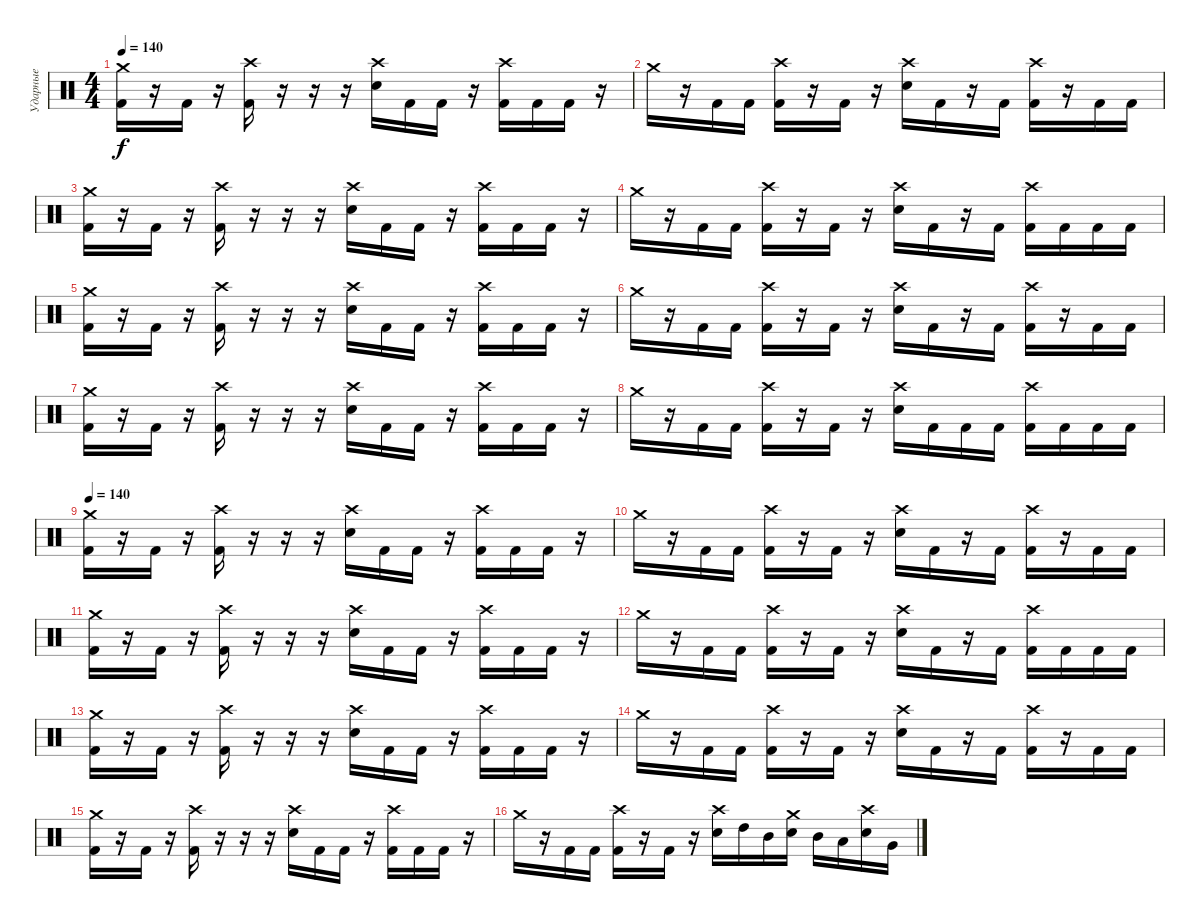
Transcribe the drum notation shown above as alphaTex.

\track ("Ударные" "Ударные") {instrument percussion}
\staff {score}
\articulation defaults
\ts (4 4)
\tempo 140
\clef neutral
\ks c
("Crash medium (hit)" "Kick (hit) 2").16{dy f} r.16 "Kick (hit) 2".16 r.16 ("Crash high (hit)" "Kick (hit) 2").16 r.16 r.16 r.16 ("Crash high (hit)" "Electric Snare (hit)").16 "Kick (hit) 2".16 "Kick (hit) 2".16 r.16 ("Crash high (hit)" "Kick (hit) 2").16 "Kick (hit) 2".16 "Kick (hit) 2".16 r.16 |
"Crash medium (hit)".16 r.16 "Kick (hit) 2".16 "Kick (hit) 2".16 ("Crash high (hit)" "Kick (hit) 2").16 r.16 "Kick (hit) 2".16 r.16 ("Crash high (hit)" "Electric Snare (hit)").16 "Kick (hit) 2".16 r.16 "Kick (hit) 2".16 ("Crash high (hit)" "Kick (hit) 2").16 r.16 "Kick (hit) 2".16 "Kick (hit) 2".16 |
("Crash medium (hit)" "Kick (hit) 2").16 r.16 "Kick (hit) 2".16 r.16 ("Crash high (hit)" "Kick (hit) 2").16 r.16 r.16 r.16 ("Crash high (hit)" "Electric Snare (hit)").16 "Kick (hit) 2".16 "Kick (hit) 2".16 r.16 ("Crash high (hit)" "Kick (hit) 2").16 "Kick (hit) 2".16 "Kick (hit) 2".16 r.16 |
"Crash medium (hit)".16 r.16 "Kick (hit) 2".16 "Kick (hit) 2".16 ("Crash high (hit)" "Kick (hit) 2").16 r.16 "Kick (hit) 2".16 r.16 ("Crash high (hit)" "Electric Snare (hit)").16 "Kick (hit) 2".16 r.16 "Kick (hit) 2".16 ("Crash high (hit)" "Kick (hit) 2").16 "Kick (hit) 2".16 "Kick (hit) 2".16 "Kick (hit) 2".16 |
("Crash medium (hit)" "Kick (hit) 2").16 r.16 "Kick (hit) 2".16 r.16 ("Crash high (hit)" "Kick (hit) 2").16 r.16 r.16 r.16 ("Crash high (hit)" "Electric Snare (hit)").16 "Kick (hit) 2".16 "Kick (hit) 2".16 r.16 ("Crash high (hit)" "Kick (hit) 2").16 "Kick (hit) 2".16 "Kick (hit) 2".16 r.16 |
"Crash medium (hit)".16 r.16 "Kick (hit) 2".16 "Kick (hit) 2".16 ("Crash high (hit)" "Kick (hit) 2").16 r.16 "Kick (hit) 2".16 r.16 ("Crash high (hit)" "Electric Snare (hit)").16 "Kick (hit) 2".16 r.16 "Kick (hit) 2".16 ("Crash high (hit)" "Kick (hit) 2").16 r.16 "Kick (hit) 2".16 "Kick (hit) 2".16 |
("Crash medium (hit)" "Kick (hit) 2").16 r.16 "Kick (hit) 2".16 r.16 ("Crash high (hit)" "Kick (hit) 2").16 r.16 r.16 r.16 ("Crash high (hit)" "Electric Snare (hit)").16 "Kick (hit) 2".16 "Kick (hit) 2".16 r.16 ("Crash high (hit)" "Kick (hit) 2").16 "Kick (hit) 2".16 "Kick (hit) 2".16 r.16 |
"Crash medium (hit)".16 r.16 "Kick (hit) 2".16 "Kick (hit) 2".16 ("Crash high (hit)" "Kick (hit) 2").16 r.16 "Kick (hit) 2".16 r.16 ("Crash high (hit)" "Electric Snare (hit)").16 "Kick (hit) 2".16 "Kick (hit) 2".16 "Kick (hit) 2".16 ("Crash high (hit)" "Kick (hit) 2").16 "Kick (hit) 2".16 "Kick (hit) 2".16 "Kick (hit) 2".16 |
\tempo 140
("Crash medium (hit)" "Kick (hit) 2").16 r.16 "Kick (hit) 2".16 r.16 ("Crash high (hit)" "Kick (hit) 2").16 r.16 r.16 r.16 ("Crash high (hit)" "Electric Snare (hit)").16 "Kick (hit) 2".16 "Kick (hit) 2".16 r.16 ("Crash high (hit)" "Kick (hit) 2").16 "Kick (hit) 2".16 "Kick (hit) 2".16 r.16 |
"Crash medium (hit)".16 r.16 "Kick (hit) 2".16 "Kick (hit) 2".16 ("Crash high (hit)" "Kick (hit) 2").16 r.16 "Kick (hit) 2".16 r.16 ("Crash high (hit)" "Electric Snare (hit)").16 "Kick (hit) 2".16 r.16 "Kick (hit) 2".16 ("Crash high (hit)" "Kick (hit) 2").16 r.16 "Kick (hit) 2".16 "Kick (hit) 2".16 |
("Crash medium (hit)" "Kick (hit) 2").16 r.16 "Kick (hit) 2".16 r.16 ("Crash high (hit)" "Kick (hit) 2").16 r.16 r.16 r.16 ("Crash high (hit)" "Electric Snare (hit)").16 "Kick (hit) 2".16 "Kick (hit) 2".16 r.16 ("Crash high (hit)" "Kick (hit) 2").16 "Kick (hit) 2".16 "Kick (hit) 2".16 r.16 |
"Crash medium (hit)".16 r.16 "Kick (hit) 2".16 "Kick (hit) 2".16 ("Crash high (hit)" "Kick (hit) 2").16 r.16 "Kick (hit) 2".16 r.16 ("Crash high (hit)" "Electric Snare (hit)").16 "Kick (hit) 2".16 r.16 "Kick (hit) 2".16 ("Crash high (hit)" "Kick (hit) 2").16 "Kick (hit) 2".16 "Kick (hit) 2".16 "Kick (hit) 2".16 |
("Crash medium (hit)" "Kick (hit) 2").16 r.16 "Kick (hit) 2".16 r.16 ("Crash high (hit)" "Kick (hit) 2").16 r.16 r.16 r.16 ("Crash high (hit)" "Electric Snare (hit)").16 "Kick (hit) 2".16 "Kick (hit) 2".16 r.16 ("Crash high (hit)" "Kick (hit) 2").16 "Kick (hit) 2".16 "Kick (hit) 2".16 r.16 |
"Crash medium (hit)".16 r.16 "Kick (hit) 2".16 "Kick (hit) 2".16 ("Crash high (hit)" "Kick (hit) 2").16 r.16 "Kick (hit) 2".16 r.16 ("Crash high (hit)" "Electric Snare (hit)").16 "Kick (hit) 2".16 r.16 "Kick (hit) 2".16 ("Crash high (hit)" "Kick (hit) 2").16 r.16 "Kick (hit) 2".16 "Kick (hit) 2".16 |
("Crash medium (hit)" "Kick (hit) 2").16 r.16 "Kick (hit) 2".16 r.16 ("Crash high (hit)" "Kick (hit) 2").16 r.16 r.16 r.16 ("Crash high (hit)" "Electric Snare (hit)").16 "Kick (hit) 2".16 "Kick (hit) 2".16 r.16 ("Crash high (hit)" "Kick (hit) 2").16 "Kick (hit) 2".16 "Kick (hit) 2".16 r.16 |
"Crash medium (hit)".16 r.16 "Kick (hit) 2".16 "Kick (hit) 2".16 ("Crash high (hit)" "Kick (hit) 2").16 r.16 "Kick (hit) 2".16 r.16 ("Crash high (hit)" "Electric Snare (hit)").16 "High Tom (hit)".16 "Mid Tom (hit)".16 ("Crash medium (hit)" "Electric Snare (hit)").16 "Mid Tom (hit)".16 "Low Tom (hit)".16 ("Crash high (hit)" "Electric Snare (hit)").16 "Very Low Tom (hit)".16
